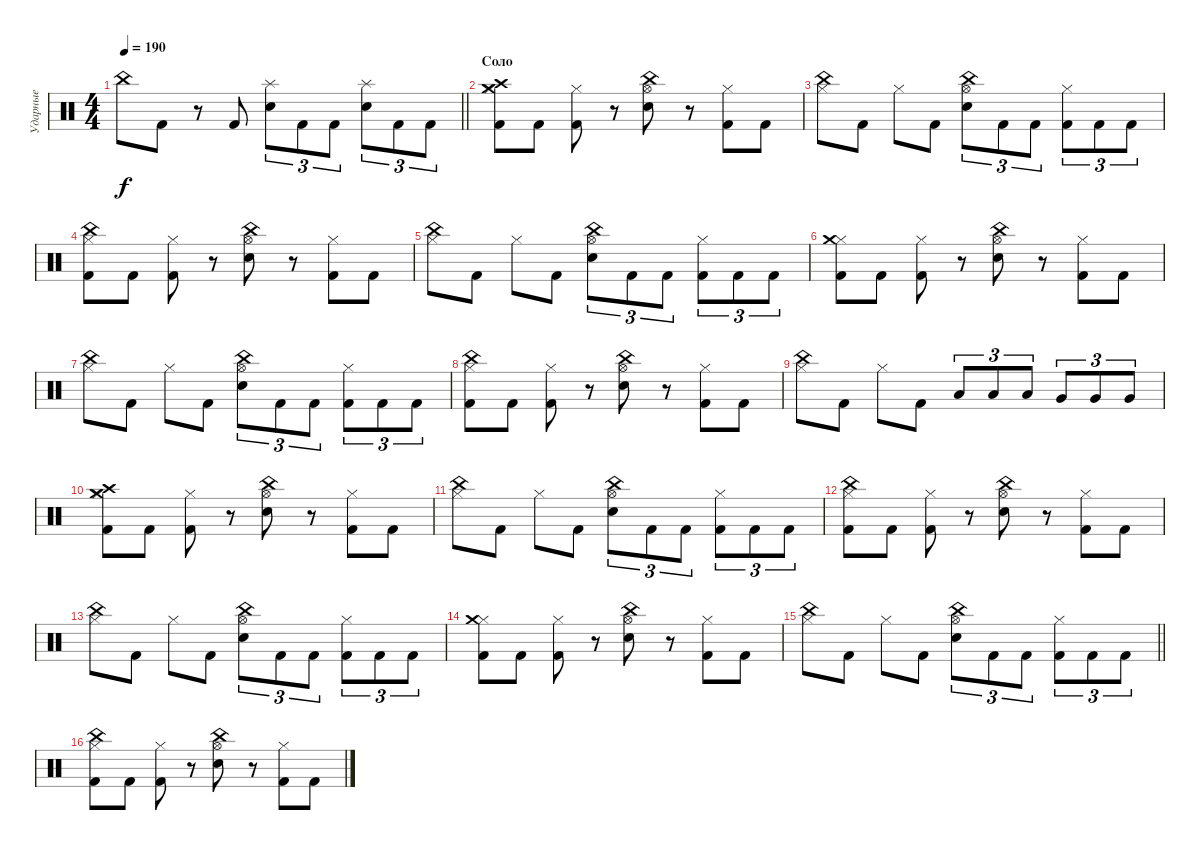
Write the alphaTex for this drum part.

\track ("Ударные" "Ударные") {instrument percussion}
\staff {score}
\articulation defaults
\ts (4 4)
\tempo 190
\clef neutral
\barLineRight lightlight
\ks c "China (hit)".8{dy f} "Kick (hit) 2".8
r.8 "Kick (hit) 2".8 ("Electric Snare (hit)" "Splash (hit)").8{tu (3 2)} "Kick (hit) 2".8{tu (3 2)} "Kick (hit) 2".8{tu (3 2)} ("Electric Snare (hit)" "Splash (hit)").8{tu (3 2)} "Kick (hit) 2".8{tu (3 2)} "Kick (hit) 2".8{tu (3 2)} |
\section ("" "Соло")
("Kick (hit) 2" "Hi-Hat (closed)" "Crash high (hit)" "Crash medium (hit)").8 "Kick (hit) 2".8 ("Kick (hit) 2" "Hi-Hat (closed)").8 r.8 ("Hi-Hat (open)" "Electric Snare (hit)" "China (hit)").8 r.8 ("Kick (hit) 2" "Hi-Hat (closed)").8 "Kick (hit) 2".8 |
("Hi-Hat (closed)" "China (hit)").8 "Kick (hit) 2".8 "Hi-Hat (closed)".8 "Kick (hit) 2".8 ("Electric Snare (hit)" "Hi-Hat (open)" "China (hit)").8{tu (3 2)} "Kick (hit) 2".8{tu (3 2)} "Kick (hit) 2".8{tu (3 2)} ("Kick (hit) 2" "Hi-Hat (closed)").8{tu (3 2)} "Kick (hit) 2".8{tu (3 2)} "Kick (hit) 2".8{tu (3 2)} |
("Kick (hit) 2" "Hi-Hat (closed)" "China (hit)").8 "Kick (hit) 2".8 ("Kick (hit) 2" "Hi-Hat (closed)").8 r.8 ("Hi-Hat (open)" "Electric Snare (hit)" "China (hit)").8 r.8 ("Kick (hit) 2" "Hi-Hat (closed)").8 "Kick (hit) 2".8 |
("Hi-Hat (closed)" "China (hit)").8 "Kick (hit) 2".8 "Hi-Hat (closed)".8 "Kick (hit) 2".8 ("Electric Snare (hit)" "Hi-Hat (open)" "China (hit)").8{tu (3 2)} "Kick (hit) 2".8{tu (3 2)} "Kick (hit) 2".8{tu (3 2)} ("Kick (hit) 2" "Hi-Hat (closed)").8{tu (3 2)} "Kick (hit) 2".8{tu (3 2)} "Kick (hit) 2".8{tu (3 2)} |
("Kick (hit) 2" "Hi-Hat (closed)" "Crash medium (hit)").8 "Kick (hit) 2".8 ("Kick (hit) 2" "Hi-Hat (closed)").8 r.8 ("Hi-Hat (open)" "Electric Snare (hit)" "China (hit)").8 r.8 ("Kick (hit) 2" "Hi-Hat (closed)").8 "Kick (hit) 2".8 |
("Hi-Hat (closed)" "China (hit)").8 "Kick (hit) 2".8 "Hi-Hat (closed)".8 "Kick (hit) 2".8 ("Electric Snare (hit)" "Hi-Hat (open)" "China (hit)").8{tu (3 2)} "Kick (hit) 2".8{tu (3 2)} "Kick (hit) 2".8{tu (3 2)} ("Kick (hit) 2" "Hi-Hat (closed)").8{tu (3 2)} "Kick (hit) 2".8{tu (3 2)} "Kick (hit) 2".8{tu (3 2)} |
("Kick (hit) 2" "Hi-Hat (closed)" "China (hit)").8 "Kick (hit) 2".8 ("Kick (hit) 2" "Hi-Hat (closed)").8 r.8 ("Hi-Hat (open)" "Electric Snare (hit)" "China (hit)").8 r.8 ("Kick (hit) 2" "Hi-Hat (closed)").8 "Kick (hit) 2".8 |
("Hi-Hat (closed)" "China (hit)").8 "Kick (hit) 2".8 "Hi-Hat (closed)".8 "Kick (hit) 2".8 "Low Tom (hit)".8{tu (3 2)} "Low Tom (hit)".8{tu (3 2)} "Low Tom (hit)".8{tu (3 2)} "Very Low Tom (hit)".8{tu (3 2)} "Very Low Tom (hit)".8{tu (3 2)} "Very Low Tom (hit)".8{tu (3 2)} |
("Kick (hit) 2" "Hi-Hat (closed)" "Crash high (hit)" "Crash medium (hit)").8 "Kick (hit) 2".8 ("Kick (hit) 2" "Hi-Hat (closed)").8 r.8 ("Hi-Hat (open)" "Electric Snare (hit)" "China (hit)").8 r.8 ("Kick (hit) 2" "Hi-Hat (closed)").8 "Kick (hit) 2".8 |
("Hi-Hat (closed)" "China (hit)").8 "Kick (hit) 2".8 "Hi-Hat (closed)".8 "Kick (hit) 2".8 ("Electric Snare (hit)" "Hi-Hat (open)" "China (hit)").8{tu (3 2)} "Kick (hit) 2".8{tu (3 2)} "Kick (hit) 2".8{tu (3 2)} ("Kick (hit) 2" "Hi-Hat (closed)").8{tu (3 2)} "Kick (hit) 2".8{tu (3 2)} "Kick (hit) 2".8{tu (3 2)} |
("Kick (hit) 2" "Hi-Hat (closed)" "China (hit)").8 "Kick (hit) 2".8 ("Kick (hit) 2" "Hi-Hat (closed)").8 r.8 ("Hi-Hat (open)" "Electric Snare (hit)" "China (hit)").8 r.8 ("Kick (hit) 2" "Hi-Hat (closed)").8 "Kick (hit) 2".8 |
("Hi-Hat (closed)" "China (hit)").8 "Kick (hit) 2".8 "Hi-Hat (closed)".8 "Kick (hit) 2".8 ("Electric Snare (hit)" "Hi-Hat (open)" "China (hit)").8{tu (3 2)} "Kick (hit) 2".8{tu (3 2)} "Kick (hit) 2".8{tu (3 2)} ("Kick (hit) 2" "Hi-Hat (closed)").8{tu (3 2)} "Kick (hit) 2".8{tu (3 2)} "Kick (hit) 2".8{tu (3 2)} |
("Kick (hit) 2" "Hi-Hat (closed)" "Crash medium (hit)").8 "Kick (hit) 2".8 ("Kick (hit) 2" "Hi-Hat (closed)").8 r.8 ("Hi-Hat (open)" "Electric Snare (hit)" "China (hit)").8 r.8 ("Kick (hit) 2" "Hi-Hat (closed)").8 "Kick (hit) 2".8 |
\barLineRight lightlight
("Hi-Hat (closed)" "China (hit)").8 "Kick (hit) 2".8 "Hi-Hat (closed)".8 "Kick (hit) 2".8 ("Electric Snare (hit)" "Hi-Hat (open)" "China (hit)").8{tu (3 2)} "Kick (hit) 2".8{tu (3 2)} "Kick (hit) 2".8{tu (3 2)} ("Kick (hit) 2" "Hi-Hat (closed)").8{tu (3 2)} "Kick (hit) 2".8{tu (3 2)} "Kick (hit) 2".8{tu (3 2)} |
("Kick (hit) 2" "Hi-Hat (closed)" "China (hit)").8 "Kick (hit) 2".8 ("Kick (hit) 2" "Hi-Hat (closed)").8 r.8 ("Hi-Hat (open)" "Electric Snare (hit)" "China (hit)").8 r.8 ("Kick (hit) 2" "Hi-Hat (closed)").8 "Kick (hit) 2".8
